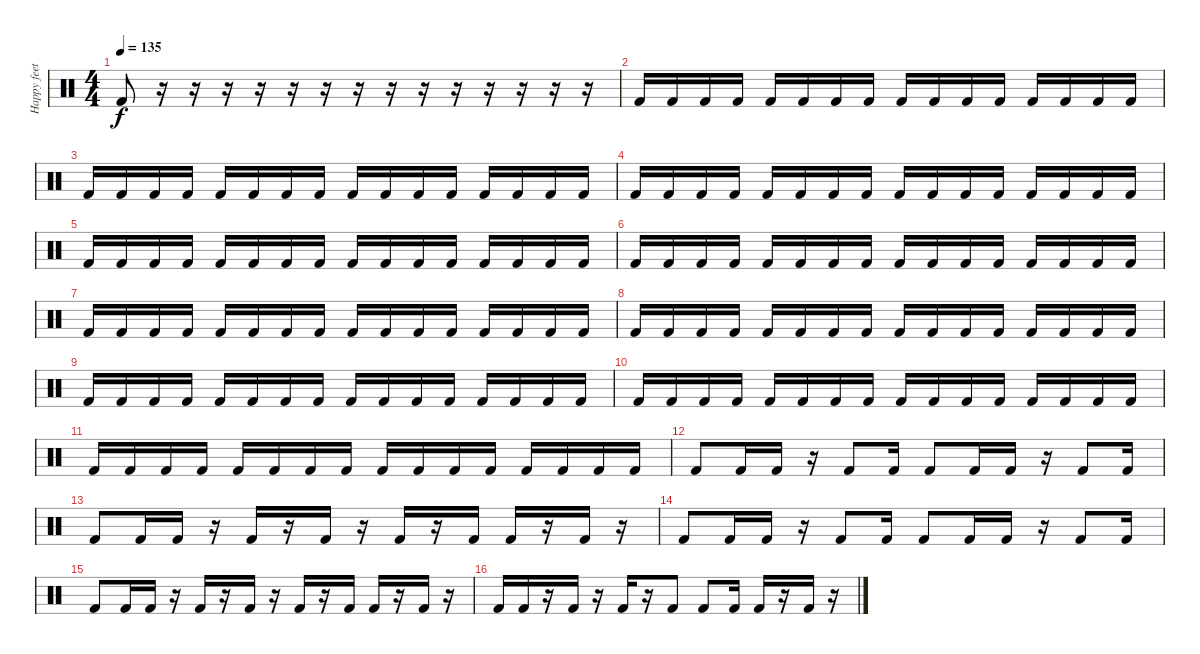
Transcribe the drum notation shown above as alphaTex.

\track ("Happy feet" "Happy feet") {instrument percussion}
\staff {score}
\articulation defaults
\ts (4 4)
\tempo 135
\clef neutral
\ks c "Kick (hit) 2".8{dy f}
r.16 r.16 r.16 r.16 r.16 r.16 r.16 r.16 r.16 r.16 r.16 r.16 r.16 r.16 |
"Kick (hit) 2".16 "Kick (hit) 2".16 "Kick (hit) 2".16 "Kick (hit) 2".16 "Kick (hit) 2".16 "Kick (hit) 2".16 "Kick (hit) 2".16 "Kick (hit) 2".16 "Kick (hit) 2".16 "Kick (hit) 2".16 "Kick (hit) 2".16 "Kick (hit) 2".16 "Kick (hit) 2".16 "Kick (hit) 2".16 "Kick (hit) 2".16 "Kick (hit) 2".16 |
"Kick (hit) 2".16 "Kick (hit) 2".16 "Kick (hit) 2".16 "Kick (hit) 2".16 "Kick (hit) 2".16 "Kick (hit) 2".16 "Kick (hit) 2".16 "Kick (hit) 2".16 "Kick (hit) 2".16 "Kick (hit) 2".16 "Kick (hit) 2".16 "Kick (hit) 2".16 "Kick (hit) 2".16 "Kick (hit) 2".16 "Kick (hit) 2".16 "Kick (hit) 2".16 |
"Kick (hit) 2".16 "Kick (hit) 2".16 "Kick (hit) 2".16 "Kick (hit) 2".16 "Kick (hit) 2".16 "Kick (hit) 2".16 "Kick (hit) 2".16 "Kick (hit) 2".16 "Kick (hit) 2".16 "Kick (hit) 2".16 "Kick (hit) 2".16 "Kick (hit) 2".16 "Kick (hit) 2".16 "Kick (hit) 2".16 "Kick (hit) 2".16 "Kick (hit) 2".16 |
"Kick (hit) 2".16 "Kick (hit) 2".16 "Kick (hit) 2".16 "Kick (hit) 2".16 "Kick (hit) 2".16 "Kick (hit) 2".16 "Kick (hit) 2".16 "Kick (hit) 2".16 "Kick (hit) 2".16 "Kick (hit) 2".16 "Kick (hit) 2".16 "Kick (hit) 2".16 "Kick (hit) 2".16 "Kick (hit) 2".16 "Kick (hit) 2".16 "Kick (hit) 2".16 |
"Kick (hit) 2".16 "Kick (hit) 2".16 "Kick (hit) 2".16 "Kick (hit) 2".16 "Kick (hit) 2".16 "Kick (hit) 2".16 "Kick (hit) 2".16 "Kick (hit) 2".16 "Kick (hit) 2".16 "Kick (hit) 2".16 "Kick (hit) 2".16 "Kick (hit) 2".16 "Kick (hit) 2".16 "Kick (hit) 2".16 "Kick (hit) 2".16 "Kick (hit) 2".16 |
"Kick (hit) 2".16 "Kick (hit) 2".16 "Kick (hit) 2".16 "Kick (hit) 2".16 "Kick (hit) 2".16 "Kick (hit) 2".16 "Kick (hit) 2".16 "Kick (hit) 2".16 "Kick (hit) 2".16 "Kick (hit) 2".16 "Kick (hit) 2".16 "Kick (hit) 2".16 "Kick (hit) 2".16 "Kick (hit) 2".16 "Kick (hit) 2".16 "Kick (hit) 2".16 |
"Kick (hit) 2".16 "Kick (hit) 2".16 "Kick (hit) 2".16 "Kick (hit) 2".16 "Kick (hit) 2".16 "Kick (hit) 2".16 "Kick (hit) 2".16 "Kick (hit) 2".16 "Kick (hit) 2".16 "Kick (hit) 2".16 "Kick (hit) 2".16 "Kick (hit) 2".16 "Kick (hit) 2".16 "Kick (hit) 2".16 "Kick (hit) 2".16 "Kick (hit) 2".16 |
"Kick (hit) 2".16 "Kick (hit) 2".16 "Kick (hit) 2".16 "Kick (hit) 2".16 "Kick (hit) 2".16 "Kick (hit) 2".16 "Kick (hit) 2".16 "Kick (hit) 2".16 "Kick (hit) 2".16 "Kick (hit) 2".16 "Kick (hit) 2".16 "Kick (hit) 2".16 "Kick (hit) 2".16 "Kick (hit) 2".16 "Kick (hit) 2".16 "Kick (hit) 2".16 |
"Kick (hit) 2".16 "Kick (hit) 2".16 "Kick (hit) 2".16 "Kick (hit) 2".16 "Kick (hit) 2".16 "Kick (hit) 2".16 "Kick (hit) 2".16 "Kick (hit) 2".16 "Kick (hit) 2".16 "Kick (hit) 2".16 "Kick (hit) 2".16 "Kick (hit) 2".16 "Kick (hit) 2".16 "Kick (hit) 2".16 "Kick (hit) 2".16 "Kick (hit) 2".16 |
"Kick (hit) 2".16 "Kick (hit) 2".16 "Kick (hit) 2".16 "Kick (hit) 2".16 "Kick (hit) 2".16 "Kick (hit) 2".16 "Kick (hit) 2".16 "Kick (hit) 2".16 "Kick (hit) 2".16 "Kick (hit) 2".16 "Kick (hit) 2".16 "Kick (hit) 2".16 "Kick (hit) 2".16 "Kick (hit) 2".16 "Kick (hit) 2".16 "Kick (hit) 2".16 |
"Kick (hit) 2".8 "Kick (hit) 2".16 "Kick (hit) 2".16 r.16 "Kick (hit) 2".8 "Kick (hit) 2".16 "Kick (hit) 2".8 "Kick (hit) 2".16 "Kick (hit) 2".16 r.16 "Kick (hit) 2".8 "Kick (hit) 2".16 |
"Kick (hit) 2".8 "Kick (hit) 2".16 "Kick (hit) 2".16 r.16 "Kick (hit) 2".16 r.16 "Kick (hit) 2".16 r.16 "Kick (hit) 2".16 r.16 "Kick (hit) 2".16 "Kick (hit) 2".16 r.16 "Kick (hit) 2".16 r.16 |
"Kick (hit) 2".8 "Kick (hit) 2".16 "Kick (hit) 2".16 r.16 "Kick (hit) 2".8 "Kick (hit) 2".16 "Kick (hit) 2".8 "Kick (hit) 2".16 "Kick (hit) 2".16 r.16 "Kick (hit) 2".8 "Kick (hit) 2".16 |
"Kick (hit) 2".8 "Kick (hit) 2".16 "Kick (hit) 2".16 r.16 "Kick (hit) 2".16 r.16 "Kick (hit) 2".16 r.16 "Kick (hit) 2".16 r.16 "Kick (hit) 2".16 "Kick (hit) 2".16 r.16 "Kick (hit) 2".16 r.16 |
"Kick (hit) 2".16 "Kick (hit) 2".16 r.16 "Kick (hit) 2".16 r.16 "Kick (hit) 2".16 r.16 "Kick (hit) 2".8 "Kick (hit) 2".8 "Kick (hit) 2".16 "Kick (hit) 2".16 r.16 "Kick (hit) 2".16 r.16
